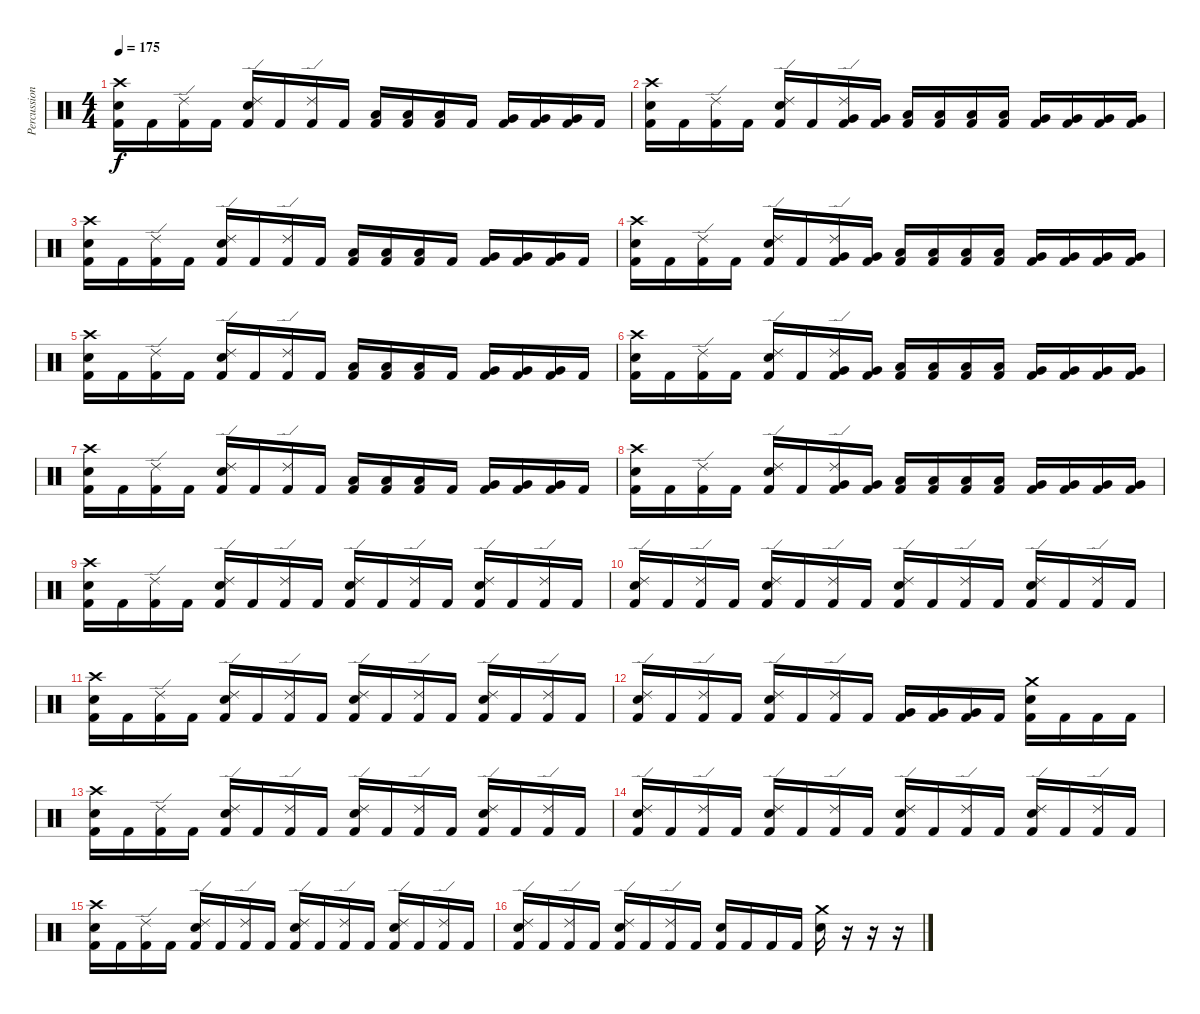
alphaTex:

\track ("Percussion" "Percussion") {instrument percussion}
\staff {score}
\articulation defaults
\ts (4 4)
\tempo 175
\clef neutral
\ks c
("Crash high (hit)" "Snare (hit) 2" "Kick (hit) 2").16{dy f} "Kick (hit) 2".16 ("Ride (edge) 2" "Kick (hit) 2").16 "Kick (hit) 2".16 ("Ride (edge) 2" "Snare (hit) 2" "Kick (hit) 2").16 "Kick (hit) 2".16 ("Ride (edge) 2" "Kick (hit) 2").16 "Kick (hit) 2".16 ("Low Tom (hit)" "Kick (hit) 2").16 ("Low Tom (hit)" "Kick (hit) 2").16 ("Low Tom (hit)" "Kick (hit) 2").16 "Kick (hit) 2".16 ("Very Low Tom (hit)" "Kick (hit) 2").16 ("Very Low Tom (hit)" "Kick (hit) 2").16 ("Very Low Tom (hit)" "Kick (hit) 2").16 "Kick (hit) 2".16 |
("Crash high (hit)" "Snare (hit) 2" "Kick (hit) 2").16 "Kick (hit) 2".16 ("Ride (edge) 2" "Kick (hit) 2").16 "Kick (hit) 2".16 ("Ride (edge) 2" "Snare (hit) 2" "Kick (hit) 2").16 "Kick (hit) 2".16 ("Ride (edge) 2" "Very Low Tom (hit)" "Kick (hit) 2").16 ("Very Low Tom (hit)" "Kick (hit) 2").16 ("Low Tom (hit)" "Kick (hit) 2").16 ("Low Tom (hit)" "Kick (hit) 2").16 ("Low Tom (hit)" "Kick (hit) 2").16 ("Low Tom (hit)" "Kick (hit) 2").16 ("Very Low Tom (hit)" "Kick (hit) 2").16 ("Very Low Tom (hit)" "Kick (hit) 2").16 ("Very Low Tom (hit)" "Kick (hit) 2").16 ("Very Low Tom (hit)" "Kick (hit) 2").16 |
("Crash high (hit)" "Snare (hit) 2" "Kick (hit) 2").16 "Kick (hit) 2".16 ("Ride (edge) 2" "Kick (hit) 2").16 "Kick (hit) 2".16 ("Ride (edge) 2" "Snare (hit) 2" "Kick (hit) 2").16 "Kick (hit) 2".16 ("Ride (edge) 2" "Kick (hit) 2").16 "Kick (hit) 2".16 ("Low Tom (hit)" "Kick (hit) 2").16 ("Low Tom (hit)" "Kick (hit) 2").16 ("Low Tom (hit)" "Kick (hit) 2").16 "Kick (hit) 2".16 ("Very Low Tom (hit)" "Kick (hit) 2").16 ("Very Low Tom (hit)" "Kick (hit) 2").16 ("Very Low Tom (hit)" "Kick (hit) 2").16 "Kick (hit) 2".16 |
("Crash high (hit)" "Snare (hit) 2" "Kick (hit) 2").16 "Kick (hit) 2".16 ("Ride (edge) 2" "Kick (hit) 2").16 "Kick (hit) 2".16 ("Ride (edge) 2" "Snare (hit) 2" "Kick (hit) 2").16 "Kick (hit) 2".16 ("Ride (edge) 2" "Very Low Tom (hit)" "Kick (hit) 2").16 ("Very Low Tom (hit)" "Kick (hit) 2").16 ("Low Tom (hit)" "Kick (hit) 2").16 ("Low Tom (hit)" "Kick (hit) 2").16 ("Low Tom (hit)" "Kick (hit) 2").16 ("Low Tom (hit)" "Kick (hit) 2").16 ("Very Low Tom (hit)" "Kick (hit) 2").16 ("Very Low Tom (hit)" "Kick (hit) 2").16 ("Very Low Tom (hit)" "Kick (hit) 2").16 ("Very Low Tom (hit)" "Kick (hit) 2").16 |
("Crash high (hit)" "Snare (hit) 2" "Kick (hit) 2").16 "Kick (hit) 2".16 ("Ride (edge) 2" "Kick (hit) 2").16 "Kick (hit) 2".16 ("Ride (edge) 2" "Snare (hit) 2" "Kick (hit) 2").16 "Kick (hit) 2".16 ("Ride (edge) 2" "Kick (hit) 2").16 "Kick (hit) 2".16 ("Low Tom (hit)" "Kick (hit) 2").16 ("Low Tom (hit)" "Kick (hit) 2").16 ("Low Tom (hit)" "Kick (hit) 2").16 "Kick (hit) 2".16 ("Very Low Tom (hit)" "Kick (hit) 2").16 ("Very Low Tom (hit)" "Kick (hit) 2").16 ("Very Low Tom (hit)" "Kick (hit) 2").16 "Kick (hit) 2".16 |
("Crash high (hit)" "Snare (hit) 2" "Kick (hit) 2").16 "Kick (hit) 2".16 ("Ride (edge) 2" "Kick (hit) 2").16 "Kick (hit) 2".16 ("Ride (edge) 2" "Snare (hit) 2" "Kick (hit) 2").16 "Kick (hit) 2".16 ("Ride (edge) 2" "Very Low Tom (hit)" "Kick (hit) 2").16 ("Very Low Tom (hit)" "Kick (hit) 2").16 ("Low Tom (hit)" "Kick (hit) 2").16 ("Low Tom (hit)" "Kick (hit) 2").16 ("Low Tom (hit)" "Kick (hit) 2").16 ("Low Tom (hit)" "Kick (hit) 2").16 ("Very Low Tom (hit)" "Kick (hit) 2").16 ("Very Low Tom (hit)" "Kick (hit) 2").16 ("Very Low Tom (hit)" "Kick (hit) 2").16 ("Very Low Tom (hit)" "Kick (hit) 2").16 |
("Crash high (hit)" "Snare (hit) 2" "Kick (hit) 2").16 "Kick (hit) 2".16 ("Ride (edge) 2" "Kick (hit) 2").16 "Kick (hit) 2".16 ("Ride (edge) 2" "Snare (hit) 2" "Kick (hit) 2").16 "Kick (hit) 2".16 ("Ride (edge) 2" "Kick (hit) 2").16 "Kick (hit) 2".16 ("Low Tom (hit)" "Kick (hit) 2").16 ("Low Tom (hit)" "Kick (hit) 2").16 ("Low Tom (hit)" "Kick (hit) 2").16 "Kick (hit) 2".16 ("Very Low Tom (hit)" "Kick (hit) 2").16 ("Very Low Tom (hit)" "Kick (hit) 2").16 ("Very Low Tom (hit)" "Kick (hit) 2").16 "Kick (hit) 2".16 |
("Crash high (hit)" "Snare (hit) 2" "Kick (hit) 2").16 "Kick (hit) 2".16 ("Ride (edge) 2" "Kick (hit) 2").16 "Kick (hit) 2".16 ("Ride (edge) 2" "Snare (hit) 2" "Kick (hit) 2").16 "Kick (hit) 2".16 ("Ride (edge) 2" "Very Low Tom (hit)" "Kick (hit) 2").16 ("Very Low Tom (hit)" "Kick (hit) 2").16 ("Low Tom (hit)" "Kick (hit) 2").16 ("Low Tom (hit)" "Kick (hit) 2").16 ("Low Tom (hit)" "Kick (hit) 2").16 ("Low Tom (hit)" "Kick (hit) 2").16 ("Very Low Tom (hit)" "Kick (hit) 2").16 ("Very Low Tom (hit)" "Kick (hit) 2").16 ("Very Low Tom (hit)" "Kick (hit) 2").16 ("Very Low Tom (hit)" "Kick (hit) 2").16 |
("Crash high (hit)" "Snare (hit) 2" "Kick (hit) 2").16 "Kick (hit) 2".16 ("Ride (edge) 2" "Kick (hit) 2").16 "Kick (hit) 2".16 ("Ride (edge) 2" "Snare (hit) 2" "Kick (hit) 2").16 "Kick (hit) 2".16 ("Ride (edge) 2" "Kick (hit) 2").16 "Kick (hit) 2".16 ("Ride (edge) 2" "Snare (hit) 2" "Kick (hit) 2").16 "Kick (hit) 2".16 ("Ride (edge) 2" "Kick (hit) 2").16 "Kick (hit) 2".16 ("Ride (edge) 2" "Snare (hit) 2" "Kick (hit) 2").16 "Kick (hit) 2".16 ("Ride (edge) 2" "Kick (hit) 2").16 "Kick (hit) 2".16 |
("Ride (edge) 2" "Snare (hit) 2" "Kick (hit) 2").16 "Kick (hit) 2".16 ("Ride (edge) 2" "Kick (hit) 2").16 "Kick (hit) 2".16 ("Ride (edge) 2" "Snare (hit) 2" "Kick (hit) 2").16 "Kick (hit) 2".16 ("Ride (edge) 2" "Kick (hit) 2").16 "Kick (hit) 2".16 ("Ride (edge) 2" "Snare (hit) 2" "Kick (hit) 2").16 "Kick (hit) 2".16 ("Ride (edge) 2" "Kick (hit) 2").16 "Kick (hit) 2".16 ("Ride (edge) 2" "Snare (hit) 2" "Kick (hit) 2").16 "Kick (hit) 2".16 ("Ride (edge) 2" "Kick (hit) 2").16 "Kick (hit) 2".16 |
("Crash high (hit)" "Snare (hit) 2" "Kick (hit) 2").16 "Kick (hit) 2".16 ("Ride (edge) 2" "Kick (hit) 2").16 "Kick (hit) 2".16 ("Ride (edge) 2" "Snare (hit) 2" "Kick (hit) 2").16 "Kick (hit) 2".16 ("Ride (edge) 2" "Kick (hit) 2").16 "Kick (hit) 2".16 ("Ride (edge) 2" "Snare (hit) 2" "Kick (hit) 2").16 "Kick (hit) 2".16 ("Ride (edge) 2" "Kick (hit) 2").16 "Kick (hit) 2".16 ("Ride (edge) 2" "Snare (hit) 2" "Kick (hit) 2").16 "Kick (hit) 2".16 ("Ride (edge) 2" "Kick (hit) 2").16 "Kick (hit) 2".16 |
("Ride (edge) 2" "Snare (hit) 2" "Kick (hit) 2").16 "Kick (hit) 2".16 ("Ride (edge) 2" "Kick (hit) 2").16 "Kick (hit) 2".16 ("Ride (edge) 2" "Snare (hit) 2" "Kick (hit) 2").16 "Kick (hit) 2".16 ("Ride (edge) 2" "Kick (hit) 2").16 "Kick (hit) 2".16 ("Very Low Tom (hit)" "Kick (hit) 2").16 ("Very Low Tom (hit)" "Kick (hit) 2").16 ("Very Low Tom (hit)" "Kick (hit) 2").16 "Kick (hit) 2".16 ("Crash medium (hit)" "Snare (hit) 2" "Kick (hit) 2").16 "Kick (hit) 2".16 "Kick (hit) 2".16 "Kick (hit) 2".16 |
("Crash high (hit)" "Snare (hit) 2" "Kick (hit) 2").16 "Kick (hit) 2".16 ("Ride (edge) 2" "Kick (hit) 2").16 "Kick (hit) 2".16 ("Ride (edge) 2" "Snare (hit) 2" "Kick (hit) 2").16 "Kick (hit) 2".16 ("Ride (edge) 2" "Kick (hit) 2").16 "Kick (hit) 2".16 ("Ride (edge) 2" "Snare (hit) 2" "Kick (hit) 2").16 "Kick (hit) 2".16 ("Ride (edge) 2" "Kick (hit) 2").16 "Kick (hit) 2".16 ("Ride (edge) 2" "Snare (hit) 2" "Kick (hit) 2").16 "Kick (hit) 2".16 ("Ride (edge) 2" "Kick (hit) 2").16 "Kick (hit) 2".16 |
("Ride (edge) 2" "Snare (hit) 2" "Kick (hit) 2").16 "Kick (hit) 2".16 ("Ride (edge) 2" "Kick (hit) 2").16 "Kick (hit) 2".16 ("Ride (edge) 2" "Snare (hit) 2" "Kick (hit) 2").16 "Kick (hit) 2".16 ("Ride (edge) 2" "Kick (hit) 2").16 "Kick (hit) 2".16 ("Ride (edge) 2" "Snare (hit) 2" "Kick (hit) 2").16 "Kick (hit) 2".16 ("Ride (edge) 2" "Kick (hit) 2").16 "Kick (hit) 2".16 ("Ride (edge) 2" "Snare (hit) 2" "Kick (hit) 2").16 "Kick (hit) 2".16 ("Ride (edge) 2" "Kick (hit) 2").16 "Kick (hit) 2".16 |
("Crash high (hit)" "Snare (hit) 2" "Kick (hit) 2").16 "Kick (hit) 2".16 ("Ride (edge) 2" "Kick (hit) 2").16 "Kick (hit) 2".16 ("Ride (edge) 2" "Snare (hit) 2" "Kick (hit) 2").16 "Kick (hit) 2".16 ("Ride (edge) 2" "Kick (hit) 2").16 "Kick (hit) 2".16 ("Ride (edge) 2" "Snare (hit) 2" "Kick (hit) 2").16 "Kick (hit) 2".16 ("Ride (edge) 2" "Kick (hit) 2").16 "Kick (hit) 2".16 ("Ride (edge) 2" "Snare (hit) 2" "Kick (hit) 2").16 "Kick (hit) 2".16 ("Ride (edge) 2" "Kick (hit) 2").16 "Kick (hit) 2".16 |
("Ride (edge) 2" "Snare (hit) 2" "Kick (hit) 2").16 "Kick (hit) 2".16 ("Ride (edge) 2" "Kick (hit) 2").16 "Kick (hit) 2".16 ("Ride (edge) 2" "Snare (hit) 2" "Kick (hit) 2").16 "Kick (hit) 2".16 ("Ride (edge) 2" "Kick (hit) 2").16 "Kick (hit) 2".16 ("Snare (hit) 2" "Kick (hit) 2").16 "Kick (hit) 2".16 "Kick (hit) 2".16 "Kick (hit) 2".16 ("Crash medium (hit)" "Snare (hit) 2").16 r.16 r.16 r.16
